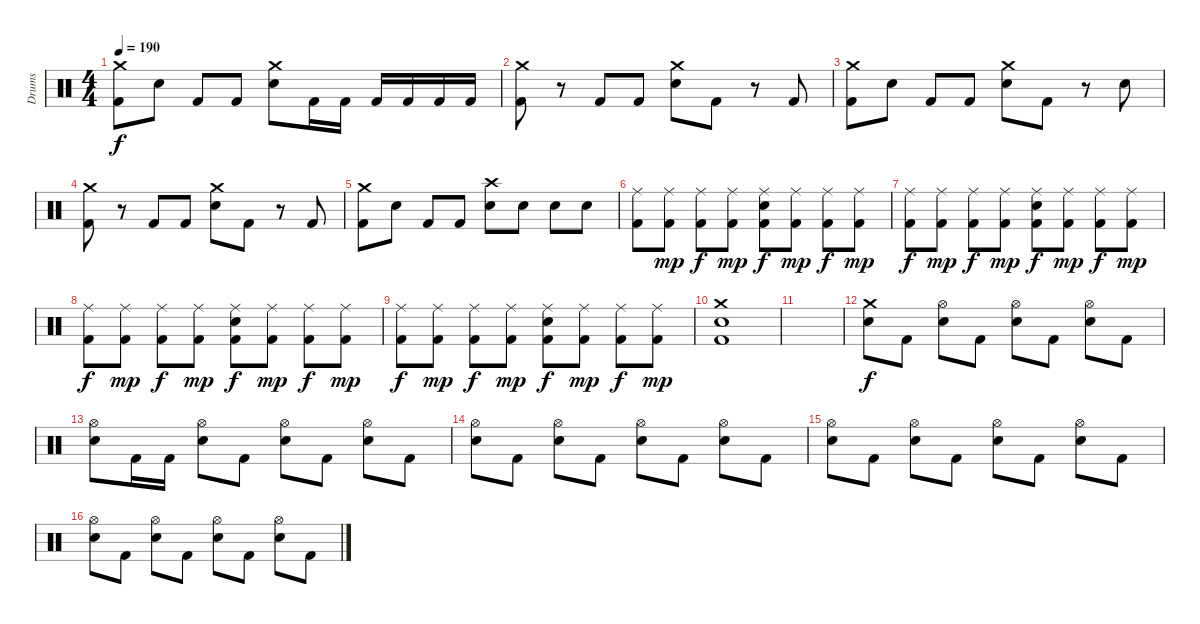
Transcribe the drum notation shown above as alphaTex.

\track ("Drums" "Drums") {instrument percussion}
\staff {score}
\articulation defaults
\ts (4 4)
\tempo 190
\clef neutral
\ks c
("Crash medium (hit)" "Kick (hit) 2").8{dy f} "Electric Snare (hit)".8 "Kick (hit) 2".8 "Kick (hit) 2".8 ("Crash medium (hit)" "Electric Snare (hit)").8 "Kick (hit) 2".16 "Kick (hit) 2".16 "Kick (hit) 2".16 "Kick (hit) 2".16 "Kick (hit) 2".16 "Kick (hit) 2".16 |
("Crash medium (hit)" "Kick (hit) 2").8 r.8 "Kick (hit) 2".8 "Kick (hit) 2".8 ("Crash medium (hit)" "Electric Snare (hit)").8 "Kick (hit) 2".8 r.8 "Kick (hit) 2".8 |
("Crash medium (hit)" "Kick (hit) 2").8 "Electric Snare (hit)".8 "Kick (hit) 2".8 "Kick (hit) 2".8 ("Crash medium (hit)" "Electric Snare (hit)").8 "Kick (hit) 2".8 r.8 "Electric Snare (hit)".8 |
("Crash medium (hit)" "Kick (hit) 2").8 r.8 "Kick (hit) 2".8 "Kick (hit) 2".8 ("Crash medium (hit)" "Electric Snare (hit)").8 "Kick (hit) 2".8 r.8 "Kick (hit) 2".8 |
("Crash medium (hit)" "Kick (hit) 2").8 "Electric Snare (hit)".8 "Kick (hit) 2".8 "Kick (hit) 2".8 ("Crash high (hit)" "Electric Snare (hit)").8 "Electric Snare (hit)".8 "Electric Snare (hit)".8 "Electric Snare (hit)".8 |
("Ride (middle)" "Kick (hit) 2").8 ("Ride (middle)" "Kick (hit) 2").8{dy mp} ("Ride (middle)" "Kick (hit) 2").8{dy f} ("Ride (middle)" "Kick (hit) 2").8{dy mp} ("Ride (middle)" "Electric Snare (hit)" "Kick (hit) 2").8{dy f} ("Ride (middle)" "Kick (hit) 2").8{dy mp} ("Ride (middle)" "Kick (hit) 2").8{dy f} ("Ride (middle)" "Kick (hit) 2").8{dy mp} |
("Ride (middle)" "Kick (hit) 2").8{dy f} ("Ride (middle)" "Kick (hit) 2").8{dy mp} ("Ride (middle)" "Kick (hit) 2").8{dy f} ("Ride (middle)" "Kick (hit) 2").8{dy mp} ("Ride (middle)" "Electric Snare (hit)" "Kick (hit) 2").8{dy f} ("Ride (middle)" "Kick (hit) 2").8{dy mp} ("Ride (middle)" "Kick (hit) 2").8{dy f} ("Ride (middle)" "Kick (hit) 2").8{dy mp} |
("Ride (middle)" "Kick (hit) 2").8{dy f} ("Ride (middle)" "Kick (hit) 2").8{dy mp} ("Ride (middle)" "Kick (hit) 2").8{dy f} ("Ride (middle)" "Kick (hit) 2").8{dy mp} ("Ride (middle)" "Electric Snare (hit)" "Kick (hit) 2").8{dy f} ("Ride (middle)" "Kick (hit) 2").8{dy mp} ("Ride (middle)" "Kick (hit) 2").8{dy f} ("Ride (middle)" "Kick (hit) 2").8{dy mp} |
("Ride (middle)" "Kick (hit) 2").8{dy f} ("Ride (middle)" "Kick (hit) 2").8{dy mp} ("Ride (middle)" "Kick (hit) 2").8{dy f} ("Ride (middle)" "Kick (hit) 2").8{dy mp} ("Ride (middle)" "Electric Snare (hit)" "Kick (hit) 2").8{dy f} ("Ride (middle)" "Kick (hit) 2").8{dy mp} ("Ride (middle)" "Kick (hit) 2").8{dy f} ("Ride (middle)" "Kick (hit) 2").8{dy mp} |
("Crash medium (hit)" "Electric Snare (hit)" "Kick (hit) 2").1 |
|
("Crash medium (hit)" "Electric Snare (hit)").8{dy f} "Kick (hit) 2".8 ("Hi-Hat (open)" "Electric Snare (hit)").8 "Kick (hit) 2".8 ("Hi-Hat (open)" "Electric Snare (hit)").8 "Kick (hit) 2".8 ("Hi-Hat (open)" "Electric Snare (hit)").8 "Kick (hit) 2".8 |
("Hi-Hat (open)" "Electric Snare (hit)").8 "Kick (hit) 2".16 "Kick (hit) 2".16 ("Hi-Hat (open)" "Electric Snare (hit)").8 "Kick (hit) 2".8 ("Hi-Hat (open)" "Electric Snare (hit)").8 "Kick (hit) 2".8 ("Hi-Hat (open)" "Electric Snare (hit)").8 "Kick (hit) 2".8 |
("Hi-Hat (open)" "Electric Snare (hit)").8 "Kick (hit) 2".8 ("Hi-Hat (open)" "Electric Snare (hit)").8 "Kick (hit) 2".8 ("Hi-Hat (open)" "Electric Snare (hit)").8 "Kick (hit) 2".8 ("Hi-Hat (open)" "Electric Snare (hit)").8 "Kick (hit) 2".8 |
("Hi-Hat (open)" "Electric Snare (hit)").8 "Kick (hit) 2".8 ("Hi-Hat (open)" "Electric Snare (hit)").8 "Kick (hit) 2".8 ("Hi-Hat (open)" "Electric Snare (hit)").8 "Kick (hit) 2".8 ("Hi-Hat (open)" "Electric Snare (hit)").8 "Kick (hit) 2".8 |
("Hi-Hat (open)" "Electric Snare (hit)").8 "Kick (hit) 2".8 ("Hi-Hat (open)" "Electric Snare (hit)").8 "Kick (hit) 2".8 ("Hi-Hat (open)" "Electric Snare (hit)").8 "Kick (hit) 2".8 ("Hi-Hat (open)" "Electric Snare (hit)").8 "Kick (hit) 2".8
